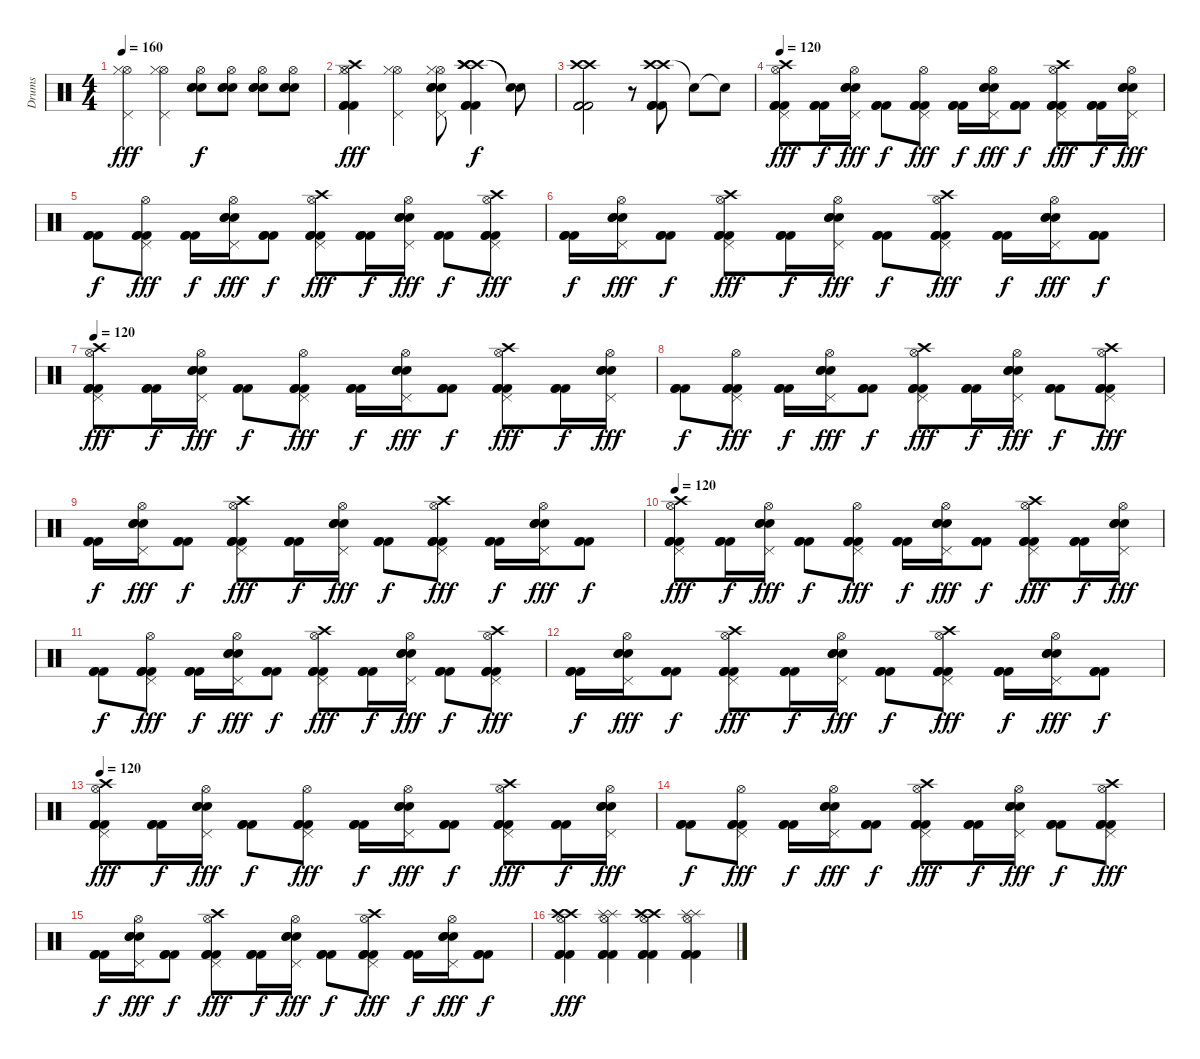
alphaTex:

\track ("Drums" "Drums") {instrument percussion}
\staff {score}
\articulation defaults
\ts (4 4)
\tempo 160
\clef neutral
\ks c
("Hi-Hat (open)" "Pedal Hi-Hat (hit)" "Hi-Hat (closed)").4{dy fff} ("Hi-Hat (open)" "Pedal Hi-Hat (hit)" "Hi-Hat (closed)").4 ("Hi-Hat (open)" "Snare (hit) 2" "Snare (hit) 2" "Snare (hit) 2").8{dy f} ("Hi-Hat (open)" "Snare (hit) 2" "Snare (hit) 2" "Snare (hit) 2").8 ("Hi-Hat (open)" "Snare (hit) 2" "Snare (hit) 2" "Snare (hit) 2").8 ("Hi-Hat (open)" "Snare (hit) 2" "Snare (hit) 2" "Snare (hit) 2").8 |
("Hi-Hat (open)" "Crash high (hit)" "Hi-Hat (closed)" "Kick (hit) 2" "Kick (hit) 2" "Kick (hit) 2").4{dy fff} ("Hi-Hat (open)" "Pedal Hi-Hat (hit)" "Hi-Hat (closed)").4 ("Hi-Hat (open)" "Pedal Hi-Hat (hit)" "Hi-Hat (closed)" "Snare (hit) 2" "Snare (hit) 2" "Snare (hit) 2").8 ("Crash high (hit)" "Crash high (hit)" "Crash high (hit)" "Kick (hit) 2" "Kick (hit) 2" "Kick (hit) 2").4{dy f} ("Snare (hit)"{t} "Snare (hit)"{t}).8 |
("Crash high (hit)" "Crash high (hit)" "Kick (hit) 2" "Kick (hit) 2" "Kick (hit) 2").2 r.8 ("Crash high (hit)" "Crash high (hit)" "Kick (hit) 2" "Kick (hit) 2" "Kick (hit) 2").8 "Snare (hit)"{t}.8 "Snare (hit)"{t}.8 |
\tempo 120
("Hi-Hat (open)" "Pedal Hi-Hat (hit)" "Crash high (hit)" "Kick (hit) 2" "Kick (hit) 2" "Kick (hit) 2").8{dy fff} ("Kick (hit) 2" "Kick (hit) 2" "Kick (hit) 2").16{dy f} ("Hi-Hat (open)" "Pedal Hi-Hat (hit)" "Snare (hit) 2" "Snare (hit) 2" "Snare (hit) 2").16{dy fff} ("Kick (hit) 2" "Kick (hit) 2" "Kick (hit) 2").8{dy f} ("Hi-Hat (open)" "Pedal Hi-Hat (hit)" "Kick (hit) 2" "Kick (hit) 2" "Kick (hit) 2").8{dy fff} ("Kick (hit) 2" "Kick (hit) 2" "Kick (hit) 2").16{dy f} ("Hi-Hat (open)" "Pedal Hi-Hat (hit)" "Snare (hit) 2" "Snare (hit) 2" "Snare (hit) 2").16{dy fff} ("Kick (hit) 2" "Kick (hit) 2" "Kick (hit) 2").8{dy f} ("Hi-Hat (open)" "Pedal Hi-Hat (hit)" "Crash high (hit)" "Kick (hit) 2" "Kick (hit) 2" "Kick (hit) 2").8{dy fff} ("Kick (hit) 2" "Kick (hit) 2" "Kick (hit) 2").16{dy f} ("Hi-Hat (open)" "Pedal Hi-Hat (hit)" "Snare (hit) 2" "Snare (hit) 2" "Snare (hit) 2").16{dy fff} |
("Kick (hit) 2" "Kick (hit) 2" "Kick (hit) 2").8{dy f} ("Hi-Hat (open)" "Pedal Hi-Hat (hit)" "Kick (hit) 2" "Kick (hit) 2" "Kick (hit) 2").8{dy fff} ("Kick (hit) 2" "Kick (hit) 2" "Kick (hit) 2").16{dy f} ("Hi-Hat (open)" "Pedal Hi-Hat (hit)" "Snare (hit) 2" "Snare (hit) 2" "Snare (hit) 2").16{dy fff} ("Kick (hit) 2" "Kick (hit) 2" "Kick (hit) 2").8{dy f} ("Hi-Hat (open)" "Pedal Hi-Hat (hit)" "Crash high (hit)" "Kick (hit) 2" "Kick (hit) 2" "Kick (hit) 2").8{dy fff} ("Kick (hit) 2" "Kick (hit) 2" "Kick (hit) 2").16{dy f} ("Hi-Hat (open)" "Pedal Hi-Hat (hit)" "Snare (hit) 2" "Snare (hit) 2" "Snare (hit) 2").16{dy fff} ("Kick (hit) 2" "Kick (hit) 2" "Kick (hit) 2").8{dy f} ("Hi-Hat (open)" "Pedal Hi-Hat (hit)" "Crash high (hit)" "Kick (hit) 2" "Kick (hit) 2" "Kick (hit) 2").8{dy fff} |
("Kick (hit) 2" "Kick (hit) 2" "Kick (hit) 2").16{dy f} ("Hi-Hat (open)" "Pedal Hi-Hat (hit)" "Snare (hit) 2" "Snare (hit) 2" "Snare (hit) 2").16{dy fff} ("Kick (hit) 2" "Kick (hit) 2" "Kick (hit) 2").8{dy f} ("Hi-Hat (open)" "Pedal Hi-Hat (hit)" "Crash high (hit)" "Kick (hit) 2" "Kick (hit) 2" "Kick (hit) 2").8{dy fff} ("Kick (hit) 2" "Kick (hit) 2" "Kick (hit) 2").16{dy f} ("Hi-Hat (open)" "Pedal Hi-Hat (hit)" "Snare (hit) 2" "Snare (hit) 2" "Snare (hit) 2").16{dy fff} ("Kick (hit) 2" "Kick (hit) 2" "Kick (hit) 2").8{dy f} ("Hi-Hat (open)" "Pedal Hi-Hat (hit)" "Crash high (hit)" "Kick (hit) 2" "Kick (hit) 2" "Kick (hit) 2").8{dy fff} ("Kick (hit) 2" "Kick (hit) 2" "Kick (hit) 2").16{dy f} ("Hi-Hat (open)" "Pedal Hi-Hat (hit)" "Snare (hit) 2" "Snare (hit) 2" "Snare (hit) 2").16{dy fff} ("Kick (hit) 2" "Kick (hit) 2" "Kick (hit) 2").8{dy f} |
\tempo 120
("Hi-Hat (open)" "Pedal Hi-Hat (hit)" "Crash high (hit)" "Kick (hit) 2" "Kick (hit) 2" "Kick (hit) 2").8{dy fff} ("Kick (hit) 2" "Kick (hit) 2" "Kick (hit) 2").16{dy f} ("Hi-Hat (open)" "Pedal Hi-Hat (hit)" "Snare (hit) 2" "Snare (hit) 2" "Snare (hit) 2").16{dy fff} ("Kick (hit) 2" "Kick (hit) 2" "Kick (hit) 2").8{dy f} ("Hi-Hat (open)" "Pedal Hi-Hat (hit)" "Kick (hit) 2" "Kick (hit) 2" "Kick (hit) 2").8{dy fff} ("Kick (hit) 2" "Kick (hit) 2" "Kick (hit) 2").16{dy f} ("Hi-Hat (open)" "Pedal Hi-Hat (hit)" "Snare (hit) 2" "Snare (hit) 2" "Snare (hit) 2").16{dy fff} ("Kick (hit) 2" "Kick (hit) 2" "Kick (hit) 2").8{dy f} ("Hi-Hat (open)" "Pedal Hi-Hat (hit)" "Crash high (hit)" "Kick (hit) 2" "Kick (hit) 2" "Kick (hit) 2").8{dy fff} ("Kick (hit) 2" "Kick (hit) 2" "Kick (hit) 2").16{dy f} ("Hi-Hat (open)" "Pedal Hi-Hat (hit)" "Snare (hit) 2" "Snare (hit) 2" "Snare (hit) 2").16{dy fff} |
("Kick (hit) 2" "Kick (hit) 2" "Kick (hit) 2").8{dy f} ("Hi-Hat (open)" "Pedal Hi-Hat (hit)" "Kick (hit) 2" "Kick (hit) 2" "Kick (hit) 2").8{dy fff} ("Kick (hit) 2" "Kick (hit) 2" "Kick (hit) 2").16{dy f} ("Hi-Hat (open)" "Pedal Hi-Hat (hit)" "Snare (hit) 2" "Snare (hit) 2" "Snare (hit) 2").16{dy fff} ("Kick (hit) 2" "Kick (hit) 2" "Kick (hit) 2").8{dy f} ("Hi-Hat (open)" "Pedal Hi-Hat (hit)" "Crash high (hit)" "Kick (hit) 2" "Kick (hit) 2" "Kick (hit) 2").8{dy fff} ("Kick (hit) 2" "Kick (hit) 2" "Kick (hit) 2").16{dy f} ("Hi-Hat (open)" "Pedal Hi-Hat (hit)" "Snare (hit) 2" "Snare (hit) 2" "Snare (hit) 2").16{dy fff} ("Kick (hit) 2" "Kick (hit) 2" "Kick (hit) 2").8{dy f} ("Hi-Hat (open)" "Pedal Hi-Hat (hit)" "Crash high (hit)" "Kick (hit) 2" "Kick (hit) 2" "Kick (hit) 2").8{dy fff} |
("Kick (hit) 2" "Kick (hit) 2" "Kick (hit) 2").16{dy f} ("Hi-Hat (open)" "Pedal Hi-Hat (hit)" "Snare (hit) 2" "Snare (hit) 2" "Snare (hit) 2").16{dy fff} ("Kick (hit) 2" "Kick (hit) 2" "Kick (hit) 2").8{dy f} ("Hi-Hat (open)" "Pedal Hi-Hat (hit)" "Crash high (hit)" "Kick (hit) 2" "Kick (hit) 2" "Kick (hit) 2").8{dy fff} ("Kick (hit) 2" "Kick (hit) 2" "Kick (hit) 2").16{dy f} ("Hi-Hat (open)" "Pedal Hi-Hat (hit)" "Snare (hit) 2" "Snare (hit) 2" "Snare (hit) 2").16{dy fff} ("Kick (hit) 2" "Kick (hit) 2" "Kick (hit) 2").8{dy f} ("Hi-Hat (open)" "Pedal Hi-Hat (hit)" "Crash high (hit)" "Kick (hit) 2" "Kick (hit) 2" "Kick (hit) 2").8{dy fff} ("Kick (hit) 2" "Kick (hit) 2" "Kick (hit) 2").16{dy f} ("Hi-Hat (open)" "Pedal Hi-Hat (hit)" "Snare (hit) 2" "Snare (hit) 2" "Snare (hit) 2").16{dy fff} ("Kick (hit) 2" "Kick (hit) 2" "Kick (hit) 2").8{dy f} |
\tempo 120
("Hi-Hat (open)" "Pedal Hi-Hat (hit)" "Crash high (hit)" "Kick (hit) 2" "Kick (hit) 2" "Kick (hit) 2").8{dy fff} ("Kick (hit) 2" "Kick (hit) 2" "Kick (hit) 2").16{dy f} ("Hi-Hat (open)" "Pedal Hi-Hat (hit)" "Snare (hit) 2" "Snare (hit) 2" "Snare (hit) 2").16{dy fff} ("Kick (hit) 2" "Kick (hit) 2" "Kick (hit) 2").8{dy f} ("Hi-Hat (open)" "Pedal Hi-Hat (hit)" "Kick (hit) 2" "Kick (hit) 2" "Kick (hit) 2").8{dy fff} ("Kick (hit) 2" "Kick (hit) 2" "Kick (hit) 2").16{dy f} ("Hi-Hat (open)" "Pedal Hi-Hat (hit)" "Snare (hit) 2" "Snare (hit) 2" "Snare (hit) 2").16{dy fff} ("Kick (hit) 2" "Kick (hit) 2" "Kick (hit) 2").8{dy f} ("Hi-Hat (open)" "Pedal Hi-Hat (hit)" "Crash high (hit)" "Kick (hit) 2" "Kick (hit) 2" "Kick (hit) 2").8{dy fff} ("Kick (hit) 2" "Kick (hit) 2" "Kick (hit) 2").16{dy f} ("Hi-Hat (open)" "Pedal Hi-Hat (hit)" "Snare (hit) 2" "Snare (hit) 2" "Snare (hit) 2").16{dy fff} |
("Kick (hit) 2" "Kick (hit) 2" "Kick (hit) 2").8{dy f} ("Hi-Hat (open)" "Pedal Hi-Hat (hit)" "Kick (hit) 2" "Kick (hit) 2" "Kick (hit) 2").8{dy fff} ("Kick (hit) 2" "Kick (hit) 2" "Kick (hit) 2").16{dy f} ("Hi-Hat (open)" "Pedal Hi-Hat (hit)" "Snare (hit) 2" "Snare (hit) 2" "Snare (hit) 2").16{dy fff} ("Kick (hit) 2" "Kick (hit) 2" "Kick (hit) 2").8{dy f} ("Hi-Hat (open)" "Pedal Hi-Hat (hit)" "Crash high (hit)" "Kick (hit) 2" "Kick (hit) 2" "Kick (hit) 2").8{dy fff} ("Kick (hit) 2" "Kick (hit) 2" "Kick (hit) 2").16{dy f} ("Hi-Hat (open)" "Pedal Hi-Hat (hit)" "Snare (hit) 2" "Snare (hit) 2" "Snare (hit) 2").16{dy fff} ("Kick (hit) 2" "Kick (hit) 2" "Kick (hit) 2").8{dy f} ("Hi-Hat (open)" "Pedal Hi-Hat (hit)" "Crash high (hit)" "Kick (hit) 2" "Kick (hit) 2" "Kick (hit) 2").8{dy fff} |
("Kick (hit) 2" "Kick (hit) 2" "Kick (hit) 2").16{dy f} ("Hi-Hat (open)" "Pedal Hi-Hat (hit)" "Snare (hit) 2" "Snare (hit) 2" "Snare (hit) 2").16{dy fff} ("Kick (hit) 2" "Kick (hit) 2" "Kick (hit) 2").8{dy f} ("Hi-Hat (open)" "Pedal Hi-Hat (hit)" "Crash high (hit)" "Kick (hit) 2" "Kick (hit) 2" "Kick (hit) 2").8{dy fff} ("Kick (hit) 2" "Kick (hit) 2" "Kick (hit) 2").16{dy f} ("Hi-Hat (open)" "Pedal Hi-Hat (hit)" "Snare (hit) 2" "Snare (hit) 2" "Snare (hit) 2").16{dy fff} ("Kick (hit) 2" "Kick (hit) 2" "Kick (hit) 2").8{dy f} ("Hi-Hat (open)" "Pedal Hi-Hat (hit)" "Crash high (hit)" "Kick (hit) 2" "Kick (hit) 2" "Kick (hit) 2").8{dy fff} ("Kick (hit) 2" "Kick (hit) 2" "Kick (hit) 2").16{dy f} ("Hi-Hat (open)" "Pedal Hi-Hat (hit)" "Snare (hit) 2" "Snare (hit) 2" "Snare (hit) 2").16{dy fff} ("Kick (hit) 2" "Kick (hit) 2" "Kick (hit) 2").8{dy f} |
\tempo 120
("Hi-Hat (open)" "Pedal Hi-Hat (hit)" "Crash high (hit)" "Kick (hit) 2" "Kick (hit) 2" "Kick (hit) 2").8{dy fff} ("Kick (hit) 2" "Kick (hit) 2" "Kick (hit) 2").16{dy f} ("Hi-Hat (open)" "Pedal Hi-Hat (hit)" "Snare (hit) 2" "Snare (hit) 2" "Snare (hit) 2").16{dy fff} ("Kick (hit) 2" "Kick (hit) 2" "Kick (hit) 2").8{dy f} ("Hi-Hat (open)" "Pedal Hi-Hat (hit)" "Kick (hit) 2" "Kick (hit) 2" "Kick (hit) 2").8{dy fff} ("Kick (hit) 2" "Kick (hit) 2" "Kick (hit) 2").16{dy f} ("Hi-Hat (open)" "Pedal Hi-Hat (hit)" "Snare (hit) 2" "Snare (hit) 2" "Snare (hit) 2").16{dy fff} ("Kick (hit) 2" "Kick (hit) 2" "Kick (hit) 2").8{dy f} ("Hi-Hat (open)" "Pedal Hi-Hat (hit)" "Crash high (hit)" "Kick (hit) 2" "Kick (hit) 2" "Kick (hit) 2").8{dy fff} ("Kick (hit) 2" "Kick (hit) 2" "Kick (hit) 2").16{dy f} ("Hi-Hat (open)" "Pedal Hi-Hat (hit)" "Snare (hit) 2" "Snare (hit) 2" "Snare (hit) 2").16{dy fff} |
("Kick (hit) 2" "Kick (hit) 2" "Kick (hit) 2").8{dy f} ("Hi-Hat (open)" "Pedal Hi-Hat (hit)" "Kick (hit) 2" "Kick (hit) 2" "Kick (hit) 2").8{dy fff} ("Kick (hit) 2" "Kick (hit) 2" "Kick (hit) 2").16{dy f} ("Hi-Hat (open)" "Pedal Hi-Hat (hit)" "Snare (hit) 2" "Snare (hit) 2" "Snare (hit) 2").16{dy fff} ("Kick (hit) 2" "Kick (hit) 2" "Kick (hit) 2").8{dy f} ("Hi-Hat (open)" "Pedal Hi-Hat (hit)" "Crash high (hit)" "Kick (hit) 2" "Kick (hit) 2" "Kick (hit) 2").8{dy fff} ("Kick (hit) 2" "Kick (hit) 2" "Kick (hit) 2").16{dy f} ("Hi-Hat (open)" "Pedal Hi-Hat (hit)" "Snare (hit) 2" "Snare (hit) 2" "Snare (hit) 2").16{dy fff} ("Kick (hit) 2" "Kick (hit) 2" "Kick (hit) 2").8{dy f} ("Hi-Hat (open)" "Pedal Hi-Hat (hit)" "Crash high (hit)" "Kick (hit) 2" "Kick (hit) 2" "Kick (hit) 2").8{dy fff} |
("Kick (hit) 2" "Kick (hit) 2" "Kick (hit) 2").16{dy f} ("Hi-Hat (open)" "Pedal Hi-Hat (hit)" "Snare (hit) 2" "Snare (hit) 2" "Snare (hit) 2").16{dy fff} ("Kick (hit) 2" "Kick (hit) 2" "Kick (hit) 2").8{dy f} ("Hi-Hat (open)" "Pedal Hi-Hat (hit)" "Crash high (hit)" "Kick (hit) 2" "Kick (hit) 2" "Kick (hit) 2").8{dy fff} ("Kick (hit) 2" "Kick (hit) 2" "Kick (hit) 2").16{dy f} ("Hi-Hat (open)" "Pedal Hi-Hat (hit)" "Snare (hit) 2" "Snare (hit) 2" "Snare (hit) 2").16{dy fff} ("Kick (hit) 2" "Kick (hit) 2" "Kick (hit) 2").8{dy f} ("Hi-Hat (open)" "Pedal Hi-Hat (hit)" "Crash high (hit)" "Kick (hit) 2" "Kick (hit) 2" "Kick (hit) 2").8{dy fff} ("Kick (hit) 2" "Kick (hit) 2" "Kick (hit) 2").16{dy f} ("Hi-Hat (open)" "Pedal Hi-Hat (hit)" "Snare (hit) 2" "Snare (hit) 2" "Snare (hit) 2").16{dy fff} ("Kick (hit) 2" "Kick (hit) 2" "Kick (hit) 2").8{dy f} |
("Hi-Hat (open)" "Crash high (hit)" "Crash high (hit)" "Kick (hit) 2" "Kick (hit) 2" "Kick (hit) 2").4{dy fff} ("Hi-Hat (open)" "Splash (hit)" "Splash (hit)" "Kick (hit) 2" "Kick (hit) 2" "Kick (hit) 2").4 ("Hi-Hat (open)" "Crash high (hit)" "Crash high (hit)" "Kick (hit) 2" "Kick (hit) 2" "Kick (hit) 2").4 ("Hi-Hat (open)" "Splash (hit)" "Splash (hit)" "Kick (hit) 2" "Kick (hit) 2" "Kick (hit) 2").4
